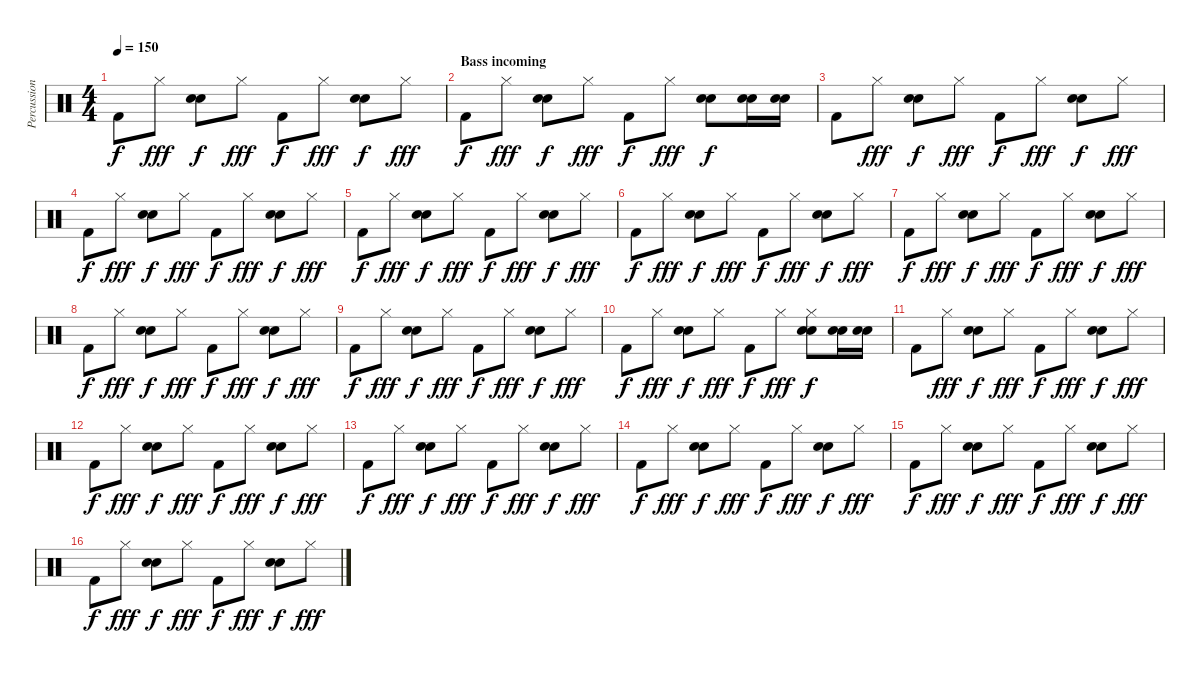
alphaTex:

\track ("Percussions" "Percussion") {instrument percussion}
\staff {score}
\articulation defaults
\ts (4 4)
\tempo 150
\clef neutral
\ks c "Kick (hit) 2".8{dy f} "Hi-Hat (closed)".8{dy fff}
("Snare (hit) 2" "Electric Snare (hit)").8{dy f} "Hi-Hat (closed)".8{dy fff} "Kick (hit) 2".8{dy f} "Hi-Hat (closed)".8{dy fff} ("Snare (hit) 2" "Electric Snare (hit)").8{dy f} "Hi-Hat (closed)".8{dy fff} |
\section ("" "Bass incoming")
"Kick (hit) 2".8{dy f} "Hi-Hat (closed)".8{dy fff} ("Snare (hit) 2" "Electric Snare (hit)").8{dy f} "Hi-Hat (closed)".8{dy fff} "Kick (hit) 2".8{dy f} "Hi-Hat (closed)".8{dy fff} ("Snare (hit) 2" "Electric Snare (hit)").8{dy f} ("Snare (hit) 2" "Electric Snare (hit)").16 ("Snare (hit) 2" "Electric Snare (hit)").16 |
"Kick (hit) 2".8 "Hi-Hat (closed)".8{dy fff} ("Snare (hit) 2" "Electric Snare (hit)").8{dy f} "Hi-Hat (closed)".8{dy fff} "Kick (hit) 2".8{dy f} "Hi-Hat (closed)".8{dy fff} ("Snare (hit) 2" "Electric Snare (hit)").8{dy f} "Hi-Hat (closed)".8{dy fff} |
"Kick (hit) 2".8{dy f} "Hi-Hat (closed)".8{dy fff} ("Snare (hit) 2" "Electric Snare (hit)").8{dy f} "Hi-Hat (closed)".8{dy fff} "Kick (hit) 2".8{dy f} "Hi-Hat (closed)".8{dy fff} ("Snare (hit) 2" "Electric Snare (hit)").8{dy f} "Hi-Hat (closed)".8{dy fff} |
"Kick (hit) 2".8{dy f} "Hi-Hat (closed)".8{dy fff} ("Snare (hit) 2" "Electric Snare (hit)").8{dy f} "Hi-Hat (closed)".8{dy fff} "Kick (hit) 2".8{dy f} "Hi-Hat (closed)".8{dy fff} ("Snare (hit) 2" "Electric Snare (hit)").8{dy f} "Hi-Hat (closed)".8{dy fff} |
"Kick (hit) 2".8{dy f} "Hi-Hat (closed)".8{dy fff} ("Snare (hit) 2" "Electric Snare (hit)").8{dy f} "Hi-Hat (closed)".8{dy fff} "Kick (hit) 2".8{dy f} "Hi-Hat (closed)".8{dy fff} ("Snare (hit) 2" "Electric Snare (hit)").8{dy f} "Hi-Hat (closed)".8{dy fff} |
"Kick (hit) 2".8{dy f} "Hi-Hat (closed)".8{dy fff} ("Snare (hit) 2" "Electric Snare (hit)").8{dy f} "Hi-Hat (closed)".8{dy fff} "Kick (hit) 2".8{dy f} "Hi-Hat (closed)".8{dy fff} ("Snare (hit) 2" "Electric Snare (hit)").8{dy f} "Hi-Hat (closed)".8{dy fff} |
"Kick (hit) 2".8{dy f} "Hi-Hat (closed)".8{dy fff} ("Snare (hit) 2" "Electric Snare (hit)").8{dy f} "Hi-Hat (closed)".8{dy fff} "Kick (hit) 2".8{dy f} "Hi-Hat (closed)".8{dy fff} ("Snare (hit) 2" "Electric Snare (hit)").8{dy f} "Hi-Hat (closed)".8{dy fff} |
"Kick (hit) 2".8{dy f} "Hi-Hat (closed)".8{dy fff} ("Snare (hit) 2" "Electric Snare (hit)").8{dy f} "Hi-Hat (closed)".8{dy fff} "Kick (hit) 2".8{dy f} "Hi-Hat (closed)".8{dy fff} ("Snare (hit) 2" "Electric Snare (hit)").8{dy f} "Hi-Hat (closed)".8{dy fff} |
"Kick (hit) 2".8{dy f} "Hi-Hat (closed)".8{dy fff} ("Snare (hit) 2" "Electric Snare (hit)").8{dy f} "Hi-Hat (closed)".8{dy fff} "Kick (hit) 2".8{dy f} "Hi-Hat (closed)".8{dy fff} ("Snare (hit) 2" "Electric Snare (hit)" "Hi-Hat (closed)").8{dy f} ("Snare (hit) 2" "Electric Snare (hit)").16 ("Snare (hit) 2" "Electric Snare (hit)").16 |
"Kick (hit) 2".8 "Hi-Hat (closed)".8{dy fff} ("Snare (hit) 2" "Electric Snare (hit)").8{dy f} "Hi-Hat (closed)".8{dy fff} "Kick (hit) 2".8{dy f} "Hi-Hat (closed)".8{dy fff} ("Snare (hit) 2" "Electric Snare (hit)").8{dy f} "Hi-Hat (closed)".8{dy fff} |
"Kick (hit) 2".8{dy f} "Hi-Hat (closed)".8{dy fff} ("Snare (hit) 2" "Electric Snare (hit)").8{dy f} "Hi-Hat (closed)".8{dy fff} "Kick (hit) 2".8{dy f} "Hi-Hat (closed)".8{dy fff} ("Snare (hit) 2" "Electric Snare (hit)").8{dy f} "Hi-Hat (closed)".8{dy fff} |
"Kick (hit) 2".8{dy f} "Hi-Hat (closed)".8{dy fff} ("Snare (hit) 2" "Electric Snare (hit)").8{dy f} "Hi-Hat (closed)".8{dy fff} "Kick (hit) 2".8{dy f} "Hi-Hat (closed)".8{dy fff} ("Snare (hit) 2" "Electric Snare (hit)").8{dy f} "Hi-Hat (closed)".8{dy fff} |
"Kick (hit) 2".8{dy f} "Hi-Hat (closed)".8{dy fff} ("Snare (hit) 2" "Electric Snare (hit)").8{dy f} "Hi-Hat (closed)".8{dy fff} "Kick (hit) 2".8{dy f} "Hi-Hat (closed)".8{dy fff} ("Snare (hit) 2" "Electric Snare (hit)").8{dy f} "Hi-Hat (closed)".8{dy fff} |
"Kick (hit) 2".8{dy f} "Hi-Hat (closed)".8{dy fff} ("Snare (hit) 2" "Electric Snare (hit)").8{dy f} "Hi-Hat (closed)".8{dy fff} "Kick (hit) 2".8{dy f} "Hi-Hat (closed)".8{dy fff} ("Snare (hit) 2" "Electric Snare (hit)").8{dy f} "Hi-Hat (closed)".8{dy fff} |
"Kick (hit) 2".8{dy f} "Hi-Hat (closed)".8{dy fff} ("Snare (hit) 2" "Electric Snare (hit)").8{dy f} "Hi-Hat (closed)".8{dy fff} "Kick (hit) 2".8{dy f} "Hi-Hat (closed)".8{dy fff} ("Snare (hit) 2" "Electric Snare (hit)").8{dy f} "Hi-Hat (closed)".8{dy fff}
